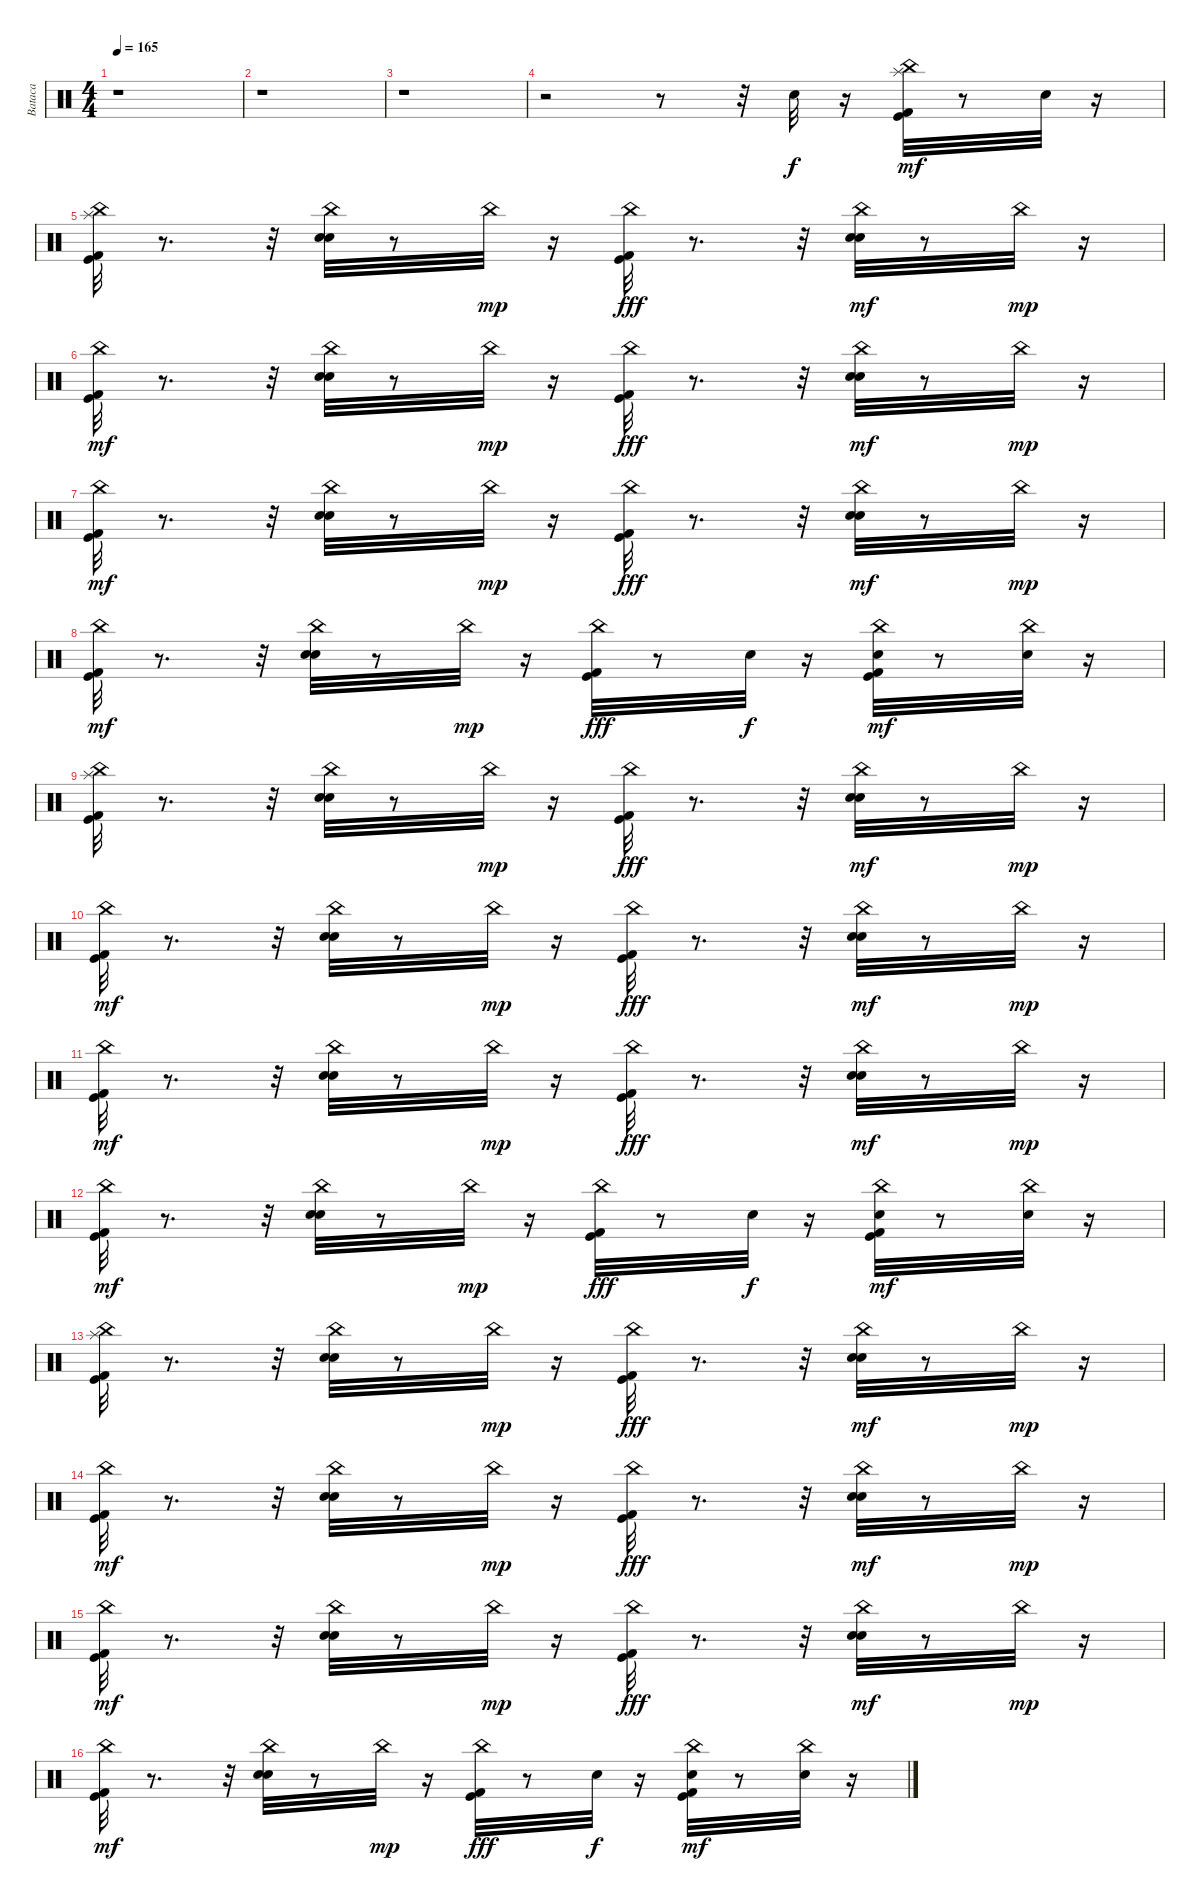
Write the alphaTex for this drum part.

\track ("Bataca" "Bataca") {instrument percussion}
\staff {score}
\articulation defaults
\ts (4 4)
\tempo 165
\clef neutral
\ks c
r.1{dy f} |
r.1 |
r.1 |
r.2 r.8 r.32 "Snare (hit) 2".32 r.16 ("China (hit)" "Kick (hit) 2" "Kick (hit)" "Splash (hit)").32{dy mf} r.8 "Snare (hit) 2".32 r.16 |
("Kick (hit) 2" "Kick (hit)" "Splash (hit)" "China (hit)").32 r.8{d} r.32 ("Snare (hit) 2" "China (hit)" "Hand Clap (hit)").32 r.8 "China (hit)".32{dy mp} r.16 ("China (hit)" "Kick (hit) 2" "Kick (hit)").32{dy fff} r.8{d} r.32 ("Snare (hit) 2" "China (hit)" "Hand Clap (hit)").32{dy mf} r.8 "China (hit)".32{dy mp} r.16 |
("Kick (hit) 2" "Kick (hit)" "China (hit)").32{dy mf} r.8{d} r.32 ("Snare (hit) 2" "China (hit)" "Hand Clap (hit)").32 r.8 "China (hit)".32{dy mp} r.16 ("China (hit)" "Kick (hit) 2" "Kick (hit)").32{dy fff} r.8{d} r.32 ("Snare (hit) 2" "China (hit)" "Hand Clap (hit)").32{dy mf} r.8 "China (hit)".32{dy mp} r.16 |
("Kick (hit) 2" "Kick (hit)" "China (hit)").32{dy mf} r.8{d} r.32 ("Snare (hit) 2" "China (hit)" "Hand Clap (hit)").32 r.8 "China (hit)".32{dy mp} r.16 ("China (hit)" "Kick (hit) 2" "Kick (hit)").32{dy fff} r.8{d} r.32 ("Snare (hit) 2" "China (hit)" "Hand Clap (hit)").32{dy mf} r.8 "China (hit)".32{dy mp} r.16 |
("Kick (hit) 2" "Kick (hit)" "China (hit)").32{dy mf} r.8{d} r.32 ("Snare (hit) 2" "China (hit)" "Hand Clap (hit)").32 r.8 "China (hit)".32{dy mp} r.16 ("China (hit)" "Kick (hit) 2" "Kick (hit)").32{dy fff} r.8 "Snare (hit) 2".32{dy f} r.16 ("China (hit)" "Kick (hit) 2" "Kick (hit)" "Hand Clap (hit)").32{dy mf} r.8 ("China (hit)" "Snare (hit) 2").32 r.16 |
("Kick (hit) 2" "Kick (hit)" "Splash (hit)" "China (hit)").32 r.8{d} r.32 ("Snare (hit) 2" "China (hit)" "Hand Clap (hit)").32 r.8 "China (hit)".32{dy mp} r.16 ("China (hit)" "Kick (hit) 2" "Kick (hit)").32{dy fff} r.8{d} r.32 ("Snare (hit) 2" "China (hit)" "Hand Clap (hit)").32{dy mf} r.8 "China (hit)".32{dy mp} r.16 |
("Kick (hit) 2" "Kick (hit)" "China (hit)").32{dy mf} r.8{d} r.32 ("Snare (hit) 2" "China (hit)" "Hand Clap (hit)").32 r.8 "China (hit)".32{dy mp} r.16 ("China (hit)" "Kick (hit) 2" "Kick (hit)").32{dy fff} r.8{d} r.32 ("Snare (hit) 2" "China (hit)" "Hand Clap (hit)").32{dy mf} r.8 "China (hit)".32{dy mp} r.16 |
("Kick (hit) 2" "Kick (hit)" "China (hit)").32{dy mf} r.8{d} r.32 ("Snare (hit) 2" "China (hit)" "Hand Clap (hit)").32 r.8 "China (hit)".32{dy mp} r.16 ("China (hit)" "Kick (hit) 2" "Kick (hit)").32{dy fff} r.8{d} r.32 ("Snare (hit) 2" "China (hit)" "Hand Clap (hit)").32{dy mf} r.8 "China (hit)".32{dy mp} r.16 |
("Kick (hit) 2" "Kick (hit)" "China (hit)").32{dy mf} r.8{d} r.32 ("Snare (hit) 2" "China (hit)" "Hand Clap (hit)").32 r.8 "China (hit)".32{dy mp} r.16 ("China (hit)" "Kick (hit) 2" "Kick (hit)").32{dy fff} r.8 "Snare (hit) 2".32{dy f} r.16 ("China (hit)" "Kick (hit) 2" "Kick (hit)" "Hand Clap (hit)").32{dy mf} r.8 ("China (hit)" "Snare (hit) 2").32 r.16 |
("Kick (hit) 2" "Kick (hit)" "Splash (hit)" "China (hit)").32 r.8{d} r.32 ("Snare (hit) 2" "China (hit)" "Hand Clap (hit)").32 r.8 "China (hit)".32{dy mp} r.16 ("China (hit)" "Kick (hit) 2" "Kick (hit)").32{dy fff} r.8{d} r.32 ("Snare (hit) 2" "China (hit)" "Hand Clap (hit)").32{dy mf} r.8 "China (hit)".32{dy mp} r.16 |
("Kick (hit) 2" "Kick (hit)" "China (hit)").32{dy mf} r.8{d} r.32 ("Snare (hit) 2" "China (hit)" "Hand Clap (hit)").32 r.8 "China (hit)".32{dy mp} r.16 ("China (hit)" "Kick (hit) 2" "Kick (hit)").32{dy fff} r.8{d} r.32 ("Snare (hit) 2" "China (hit)" "Hand Clap (hit)").32{dy mf} r.8 "China (hit)".32{dy mp} r.16 |
("Kick (hit) 2" "Kick (hit)" "China (hit)").32{dy mf} r.8{d} r.32 ("Snare (hit) 2" "China (hit)" "Hand Clap (hit)").32 r.8 "China (hit)".32{dy mp} r.16 ("China (hit)" "Kick (hit) 2" "Kick (hit)").32{dy fff} r.8{d} r.32 ("Snare (hit) 2" "China (hit)" "Hand Clap (hit)").32{dy mf} r.8 "China (hit)".32{dy mp} r.16 |
("Kick (hit) 2" "Kick (hit)" "China (hit)").32{dy mf} r.8{d} r.32 ("Snare (hit) 2" "China (hit)" "Hand Clap (hit)").32 r.8 "China (hit)".32{dy mp} r.16 ("China (hit)" "Kick (hit) 2" "Kick (hit)").32{dy fff} r.8 "Snare (hit) 2".32{dy f} r.16 ("China (hit)" "Kick (hit) 2" "Kick (hit)" "Hand Clap (hit)").32{dy mf} r.8 ("China (hit)" "Snare (hit) 2").32 r.16
